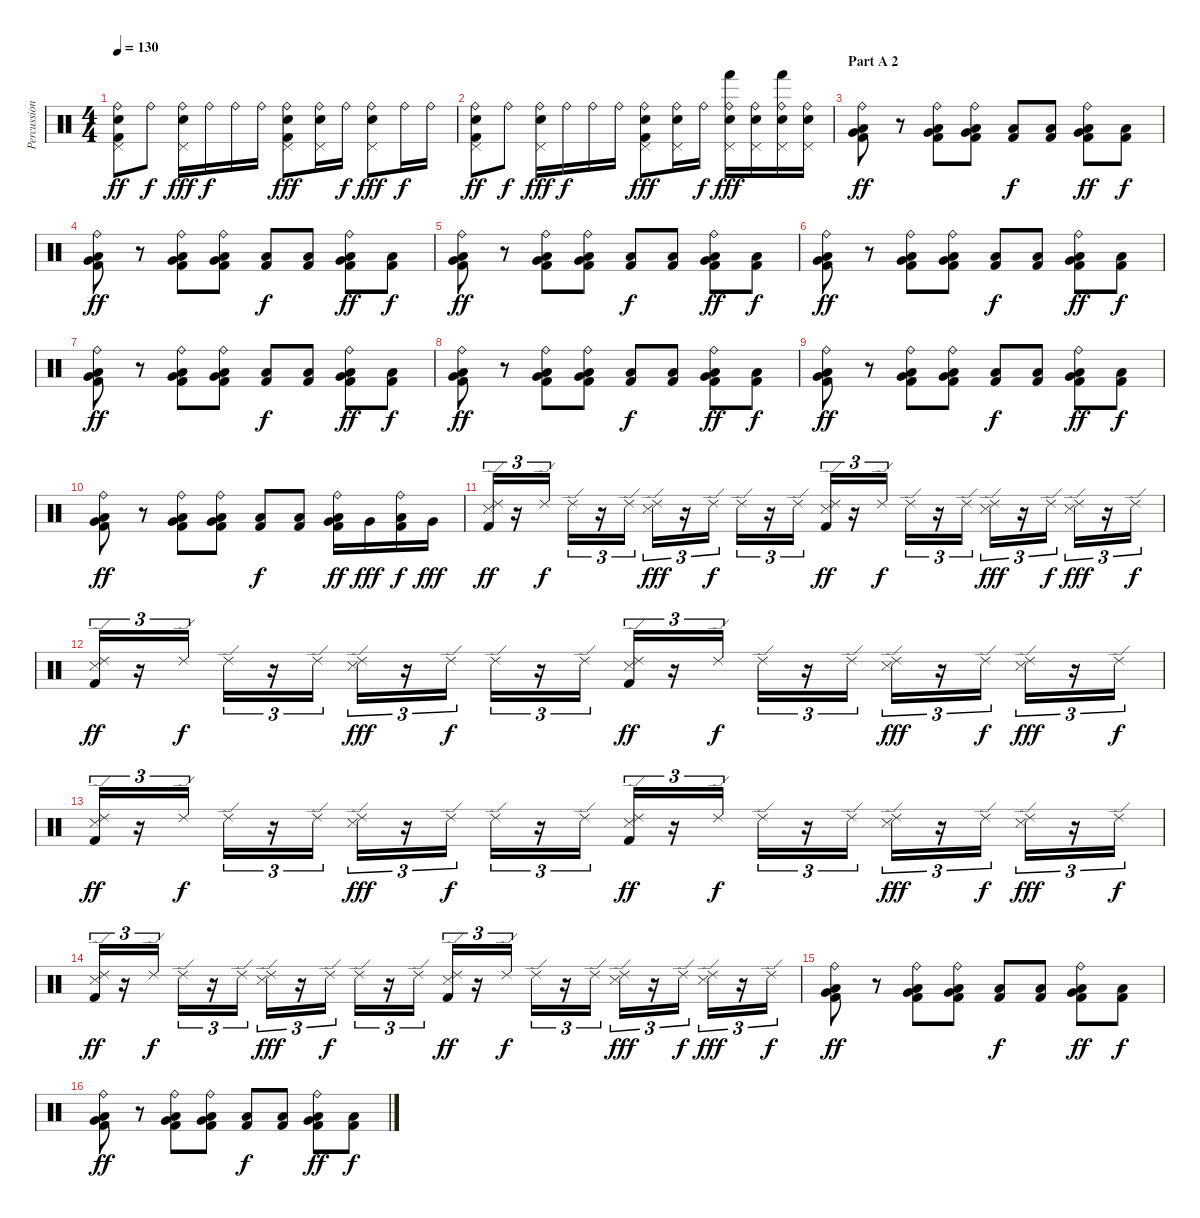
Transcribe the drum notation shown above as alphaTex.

\track ("Percussion" "Percussion") {instrument percussion}
\staff {score}
\articulation defaults
\ts (4 4)
\tempo 130
\clef neutral
\ks c
("Ride (bell)" "Pedal Hi-Hat (hit)" "Electric Snare (hit)" "Kick (hit) 2").8{dy ff} "Ride (bell)".8{dy f} ("Ride (bell)" "Pedal Hi-Hat (hit)" "Electric Snare (hit)").16{dy fff} "Ride (bell)".16{dy f} "Ride (bell)".16 "Ride (bell)".16 ("Ride (bell)" "Pedal Hi-Hat (hit)" "Electric Snare (hit)" "Kick (hit) 2").8{dy fff} ("Ride (bell)" "Pedal Hi-Hat (hit)" "Electric Snare (hit)").16 "Ride (bell)".16{dy f} ("Ride (bell)" "Pedal Hi-Hat (hit)" "Electric Snare (hit)").8{dy fff} "Ride (bell)".16{dy f} "Ride (bell)".16 |
("Ride (bell)" "Pedal Hi-Hat (hit)" "Electric Snare (hit)" "Kick (hit) 2").8{dy ff} "Ride (bell)".8{dy f} ("Ride (bell)" "Pedal Hi-Hat (hit)" "Electric Snare (hit)").16{dy fff} "Ride (bell)".16{dy f} "Ride (bell)".16 "Ride (bell)".16 ("Ride (bell)" "Pedal Hi-Hat (hit)" "Electric Snare (hit)" "Kick (hit) 2").8{dy fff} ("Ride (bell)" "Pedal Hi-Hat (hit)" "Electric Snare (hit)").16 "Ride (bell)".16{dy f} ("Ride (bell)" "Pedal Hi-Hat (hit)" "Hand (hit)" "Electric Snare (hit)").16{dy fff} ("Ride (bell)" "Pedal Hi-Hat (hit)" "Electric Snare (hit)").16 ("Ride (bell)" "Pedal Hi-Hat (hit)" "Hand (hit)" "Electric Snare (hit)").16 ("Ride (bell)" "Pedal Hi-Hat (hit)" "Electric Snare (hit)").16 |
\section ("" "Part A 2")
("Ride (bell)" "Very Low Tom (hit)" "Low Floor Tom (hit)" "Kick (hit) 2").8{dy ff} r.8 ("Ride (bell)" "Very Low Tom (hit)" "Low Floor Tom (hit)" "Kick (hit) 2").8 ("Ride (bell)" "Very Low Tom (hit)" "Low Floor Tom (hit)" "Kick (hit) 2").8 ("Low Floor Tom (hit)" "Kick (hit) 2").8{dy f} ("Low Floor Tom (hit)" "Kick (hit) 2").8 ("Ride (bell)" "Very Low Tom (hit)" "Low Floor Tom (hit)" "Kick (hit) 2").8{dy ff} ("Low Floor Tom (hit)" "Kick (hit) 2").8{dy f} |
("Ride (bell)" "Very Low Tom (hit)" "Low Floor Tom (hit)" "Kick (hit) 2").8{dy ff} r.8 ("Ride (bell)" "Very Low Tom (hit)" "Low Floor Tom (hit)" "Kick (hit) 2").8 ("Ride (bell)" "Very Low Tom (hit)" "Low Floor Tom (hit)" "Kick (hit) 2").8 ("Low Floor Tom (hit)" "Kick (hit) 2").8{dy f} ("Low Floor Tom (hit)" "Kick (hit) 2").8 ("Ride (bell)" "Very Low Tom (hit)" "Low Floor Tom (hit)" "Kick (hit) 2").8{dy ff} ("Low Floor Tom (hit)" "Kick (hit) 2").8{dy f} |
("Ride (bell)" "Very Low Tom (hit)" "Low Floor Tom (hit)" "Kick (hit) 2").8{dy ff} r.8 ("Ride (bell)" "Very Low Tom (hit)" "Low Floor Tom (hit)" "Kick (hit) 2").8 ("Ride (bell)" "Very Low Tom (hit)" "Low Floor Tom (hit)" "Kick (hit) 2").8 ("Low Floor Tom (hit)" "Kick (hit) 2").8{dy f} ("Low Floor Tom (hit)" "Kick (hit) 2").8 ("Ride (bell)" "Very Low Tom (hit)" "Low Floor Tom (hit)" "Kick (hit) 2").8{dy ff} ("Low Floor Tom (hit)" "Kick (hit) 2").8{dy f} |
("Ride (bell)" "Very Low Tom (hit)" "Low Floor Tom (hit)" "Kick (hit) 2").8{dy ff} r.8 ("Ride (bell)" "Very Low Tom (hit)" "Low Floor Tom (hit)" "Kick (hit) 2").8 ("Ride (bell)" "Very Low Tom (hit)" "Low Floor Tom (hit)" "Kick (hit) 2").8 ("Low Floor Tom (hit)" "Kick (hit) 2").8{dy f} ("Low Floor Tom (hit)" "Kick (hit) 2").8 ("Ride (bell)" "Very Low Tom (hit)" "Low Floor Tom (hit)" "Kick (hit) 2").8{dy ff} ("Low Floor Tom (hit)" "Kick (hit) 2").8{dy f} |
("Ride (bell)" "Very Low Tom (hit)" "Low Floor Tom (hit)" "Kick (hit) 2").8{dy ff} r.8 ("Ride (bell)" "Very Low Tom (hit)" "Low Floor Tom (hit)" "Kick (hit) 2").8 ("Ride (bell)" "Very Low Tom (hit)" "Low Floor Tom (hit)" "Kick (hit) 2").8 ("Low Floor Tom (hit)" "Kick (hit) 2").8{dy f} ("Low Floor Tom (hit)" "Kick (hit) 2").8 ("Ride (bell)" "Very Low Tom (hit)" "Low Floor Tom (hit)" "Kick (hit) 2").8{dy ff} ("Low Floor Tom (hit)" "Kick (hit) 2").8{dy f} |
("Ride (bell)" "Very Low Tom (hit)" "Low Floor Tom (hit)" "Kick (hit) 2").8{dy ff} r.8 ("Ride (bell)" "Very Low Tom (hit)" "Low Floor Tom (hit)" "Kick (hit) 2").8 ("Ride (bell)" "Very Low Tom (hit)" "Low Floor Tom (hit)" "Kick (hit) 2").8 ("Low Floor Tom (hit)" "Kick (hit) 2").8{dy f} ("Low Floor Tom (hit)" "Kick (hit) 2").8 ("Ride (bell)" "Very Low Tom (hit)" "Low Floor Tom (hit)" "Kick (hit) 2").8{dy ff} ("Low Floor Tom (hit)" "Kick (hit) 2").8{dy f} |
("Ride (bell)" "Very Low Tom (hit)" "Low Floor Tom (hit)" "Kick (hit) 2").8{dy ff} r.8 ("Ride (bell)" "Very Low Tom (hit)" "Low Floor Tom (hit)" "Kick (hit) 2").8 ("Ride (bell)" "Very Low Tom (hit)" "Low Floor Tom (hit)" "Kick (hit) 2").8 ("Low Floor Tom (hit)" "Kick (hit) 2").8{dy f} ("Low Floor Tom (hit)" "Kick (hit) 2").8 ("Ride (bell)" "Very Low Tom (hit)" "Low Floor Tom (hit)" "Kick (hit) 2").8{dy ff} ("Low Floor Tom (hit)" "Kick (hit) 2").8{dy f} |
("Ride (bell)" "Very Low Tom (hit)" "Low Floor Tom (hit)" "Kick (hit) 2").8{dy ff} r.8 ("Ride (bell)" "Very Low Tom (hit)" "Low Floor Tom (hit)" "Kick (hit) 2").8 ("Ride (bell)" "Very Low Tom (hit)" "Low Floor Tom (hit)" "Kick (hit) 2").8 ("Low Floor Tom (hit)" "Kick (hit) 2").8{dy f} ("Low Floor Tom (hit)" "Kick (hit) 2").8 ("Ride (bell)" "Very Low Tom (hit)" "Low Floor Tom (hit)" "Kick (hit) 2").16{dy ff} "Very Low Tom (hit)".16{dy fff} ("Ride (bell)" "Low Floor Tom (hit)" "Kick (hit) 2").16{dy f} "Very Low Tom (hit)".16{dy fff} |
("Ride (edge) 2" "Snare (side stick) 3" "Kick (hit) 2").16{tu (3 2) dy ff} r.16{tu (3 2)} "Ride (edge) 2".16{tu (3 2) dy f} "Ride (edge) 2".16{tu (3 2)} r.16{tu (3 2)} "Ride (edge) 2".16{tu (3 2)} ("Ride (edge) 2" "Snare (side stick) 3").16{tu (3 2) dy fff} r.16{tu (3 2)} "Ride (edge) 2".16{tu (3 2) dy f} "Ride (edge) 2".16{tu (3 2)} r.16{tu (3 2)} "Ride (edge) 2".16{tu (3 2)} ("Ride (edge) 2" "Snare (side stick) 3" "Kick (hit) 2").16{tu (3 2) dy ff} r.16{tu (3 2)} "Ride (edge) 2".16{tu (3 2) dy f} "Ride (edge) 2".16{tu (3 2)} r.16{tu (3 2)} "Ride (edge) 2".16{tu (3 2)} ("Ride (edge) 2" "Snare (side stick) 3").16{tu (3 2) dy fff} r.16{tu (3 2)} "Ride (edge) 2".16{tu (3 2) dy f} ("Ride (edge) 2" "Snare (side stick) 3").16{tu (3 2) dy fff} r.16{tu (3 2)} "Ride (edge) 2".16{tu (3 2) dy f} |
("Ride (edge) 2" "Snare (side stick) 3" "Kick (hit) 2").16{tu (3 2) dy ff} r.16{tu (3 2)} "Ride (edge) 2".16{tu (3 2) dy f} "Ride (edge) 2".16{tu (3 2)} r.16{tu (3 2)} "Ride (edge) 2".16{tu (3 2)} ("Ride (edge) 2" "Snare (side stick) 3").16{tu (3 2) dy fff} r.16{tu (3 2)} "Ride (edge) 2".16{tu (3 2) dy f} "Ride (edge) 2".16{tu (3 2)} r.16{tu (3 2)} "Ride (edge) 2".16{tu (3 2)} ("Ride (edge) 2" "Snare (side stick) 3" "Kick (hit) 2").16{tu (3 2) dy ff} r.16{tu (3 2)} "Ride (edge) 2".16{tu (3 2) dy f} "Ride (edge) 2".16{tu (3 2)} r.16{tu (3 2)} "Ride (edge) 2".16{tu (3 2)} ("Ride (edge) 2" "Snare (side stick) 3").16{tu (3 2) dy fff} r.16{tu (3 2)} "Ride (edge) 2".16{tu (3 2) dy f} ("Ride (edge) 2" "Snare (side stick) 3").16{tu (3 2) dy fff} r.16{tu (3 2)} "Ride (edge) 2".16{tu (3 2) dy f} |
("Ride (edge) 2" "Snare (side stick) 3" "Kick (hit) 2").16{tu (3 2) dy ff} r.16{tu (3 2)} "Ride (edge) 2".16{tu (3 2) dy f} "Ride (edge) 2".16{tu (3 2)} r.16{tu (3 2)} "Ride (edge) 2".16{tu (3 2)} ("Ride (edge) 2" "Snare (side stick) 3").16{tu (3 2) dy fff} r.16{tu (3 2)} "Ride (edge) 2".16{tu (3 2) dy f} "Ride (edge) 2".16{tu (3 2)} r.16{tu (3 2)} "Ride (edge) 2".16{tu (3 2)} ("Ride (edge) 2" "Snare (side stick) 3" "Kick (hit) 2").16{tu (3 2) dy ff} r.16{tu (3 2)} "Ride (edge) 2".16{tu (3 2) dy f} "Ride (edge) 2".16{tu (3 2)} r.16{tu (3 2)} "Ride (edge) 2".16{tu (3 2)} ("Ride (edge) 2" "Snare (side stick) 3").16{tu (3 2) dy fff} r.16{tu (3 2)} "Ride (edge) 2".16{tu (3 2) dy f} ("Ride (edge) 2" "Snare (side stick) 3").16{tu (3 2) dy fff} r.16{tu (3 2)} "Ride (edge) 2".16{tu (3 2) dy f} |
("Ride (edge) 2" "Snare (side stick) 3" "Kick (hit) 2").16{tu (3 2) dy ff} r.16{tu (3 2)} "Ride (edge) 2".16{tu (3 2) dy f} "Ride (edge) 2".16{tu (3 2)} r.16{tu (3 2)} "Ride (edge) 2".16{tu (3 2)} ("Ride (edge) 2" "Snare (side stick) 3").16{tu (3 2) dy fff} r.16{tu (3 2)} "Ride (edge) 2".16{tu (3 2) dy f} "Ride (edge) 2".16{tu (3 2)} r.16{tu (3 2)} "Ride (edge) 2".16{tu (3 2)} ("Ride (edge) 2" "Snare (side stick) 3" "Kick (hit) 2").16{tu (3 2) dy ff} r.16{tu (3 2)} "Ride (edge) 2".16{tu (3 2) dy f} "Ride (edge) 2".16{tu (3 2)} r.16{tu (3 2)} "Ride (edge) 2".16{tu (3 2)} ("Ride (edge) 2" "Snare (side stick) 3").16{tu (3 2) dy fff} r.16{tu (3 2)} "Ride (edge) 2".16{tu (3 2) dy f} ("Ride (edge) 2" "Snare (side stick) 3").16{tu (3 2) dy fff} r.16{tu (3 2)} "Ride (edge) 2".16{tu (3 2) dy f} |
("Ride (bell)" "Very Low Tom (hit)" "Low Floor Tom (hit)" "Kick (hit) 2").8{dy ff} r.8 ("Ride (bell)" "Very Low Tom (hit)" "Low Floor Tom (hit)" "Kick (hit) 2").8 ("Ride (bell)" "Very Low Tom (hit)" "Low Floor Tom (hit)" "Kick (hit) 2").8 ("Low Floor Tom (hit)" "Kick (hit) 2").8{dy f} ("Low Floor Tom (hit)" "Kick (hit) 2").8 ("Ride (bell)" "Very Low Tom (hit)" "Low Floor Tom (hit)" "Kick (hit) 2").8{dy ff} ("Low Floor Tom (hit)" "Kick (hit) 2").8{dy f} |
("Ride (bell)" "Very Low Tom (hit)" "Low Floor Tom (hit)" "Kick (hit) 2").8{dy ff} r.8 ("Ride (bell)" "Very Low Tom (hit)" "Low Floor Tom (hit)" "Kick (hit) 2").8 ("Ride (bell)" "Very Low Tom (hit)" "Low Floor Tom (hit)" "Kick (hit) 2").8 ("Low Floor Tom (hit)" "Kick (hit) 2").8{dy f} ("Low Floor Tom (hit)" "Kick (hit) 2").8 ("Ride (bell)" "Very Low Tom (hit)" "Low Floor Tom (hit)" "Kick (hit) 2").8{dy ff} ("Low Floor Tom (hit)" "Kick (hit) 2").8{dy f}
